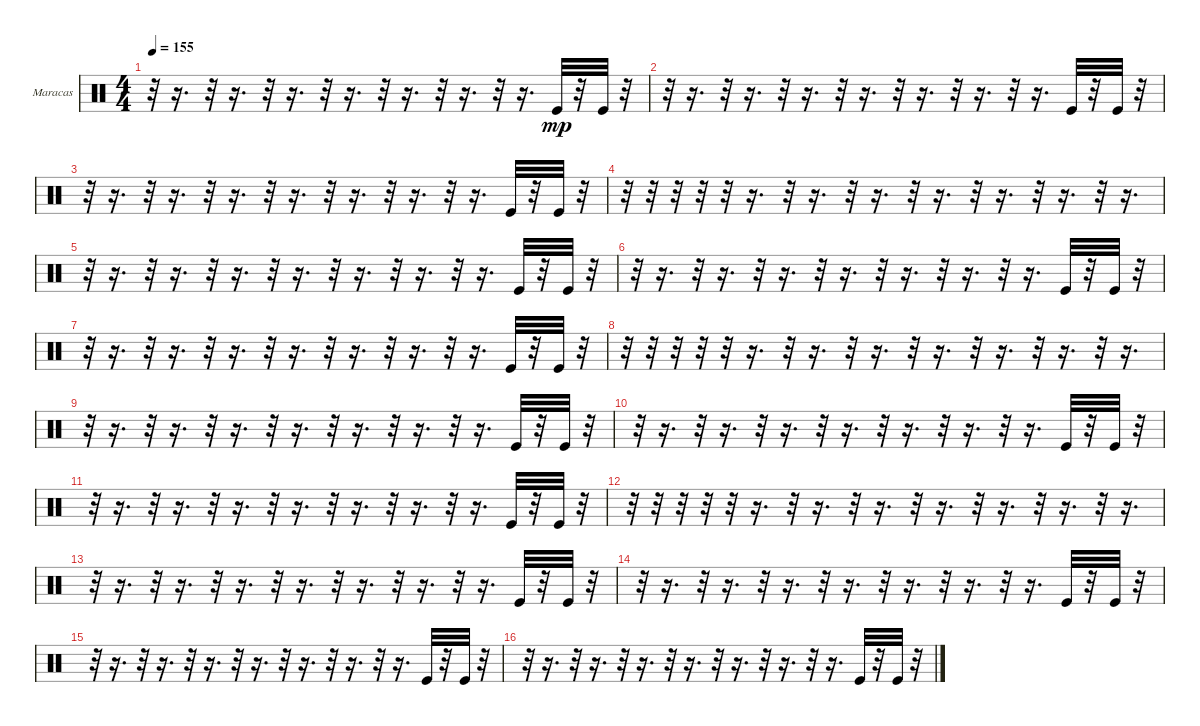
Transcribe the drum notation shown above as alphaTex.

\bracketExtendMode groupsimilarinstruments
\firstSystemTrackNameOrientation horizontal
\otherSystemsTrackNameOrientation horizontal
\track ("Е. Кулаков" "Maracas") {instrument percussion}
\staff {score}
\articulation defaults
\ts (4 4)
\tempo 155
\clef neutral
\ks c
r.32{dy mp} r.16{d} r.32 r.16{d} r.32 r.16{d} r.32 r.16{d} r.32 r.16{d} r.32 r.16{d} r.32 r.16{d} "Kick (hit)".32 r.32 "Kick (hit)".32 r.32 |
r.32 r.16{d} r.32 r.16{d} r.32 r.16{d} r.32 r.16{d} r.32 r.16{d} r.32 r.16{d} r.32 r.16{d} "Kick (hit)".32 r.32 "Kick (hit)".32 r.32 |
r.32 r.16{d} r.32 r.16{d} r.32 r.16{d} r.32 r.16{d} r.32 r.16{d} r.32 r.16{d} r.32 r.16{d} "Kick (hit)".32 r.32 "Kick (hit)".32 r.32 |
r.32 r.32 r.32 r.32 r.32 r.16{d} r.32 r.16{d} r.32 r.16{d} r.32 r.16{d} r.32 r.16{d} r.32 r.16{d} r.32 r.16{d} |
r.32 r.16{d} r.32 r.16{d} r.32 r.16{d} r.32 r.16{d} r.32 r.16{d} r.32 r.16{d} r.32 r.16{d} "Kick (hit)".32 r.32 "Kick (hit)".32 r.32 |
r.32 r.16{d} r.32 r.16{d} r.32 r.16{d} r.32 r.16{d} r.32 r.16{d} r.32 r.16{d} r.32 r.16{d} "Kick (hit)".32 r.32 "Kick (hit)".32 r.32 |
r.32 r.16{d} r.32 r.16{d} r.32 r.16{d} r.32 r.16{d} r.32 r.16{d} r.32 r.16{d} r.32 r.16{d} "Kick (hit)".32 r.32 "Kick (hit)".32 r.32 |
r.32 r.32 r.32 r.32 r.32 r.16{d} r.32 r.16{d} r.32 r.16{d} r.32 r.16{d} r.32 r.16{d} r.32 r.16{d} r.32 r.16{d} |
r.32 r.16{d} r.32 r.16{d} r.32 r.16{d} r.32 r.16{d} r.32 r.16{d} r.32 r.16{d} r.32 r.16{d} "Kick (hit)".32 r.32 "Kick (hit)".32 r.32 |
r.32 r.16{d} r.32 r.16{d} r.32 r.16{d} r.32 r.16{d} r.32 r.16{d} r.32 r.16{d} r.32 r.16{d} "Kick (hit)".32 r.32 "Kick (hit)".32 r.32 |
r.32 r.16{d} r.32 r.16{d} r.32 r.16{d} r.32 r.16{d} r.32 r.16{d} r.32 r.16{d} r.32 r.16{d} "Kick (hit)".32 r.32 "Kick (hit)".32 r.32 |
r.32 r.32 r.32 r.32 r.32 r.16{d} r.32 r.16{d} r.32 r.16{d} r.32 r.16{d} r.32 r.16{d} r.32 r.16{d} r.32 r.16{d} |
r.32 r.16{d} r.32 r.16{d} r.32 r.16{d} r.32 r.16{d} r.32 r.16{d} r.32 r.16{d} r.32 r.16{d} "Kick (hit)".32 r.32 "Kick (hit)".32 r.32 |
r.32 r.16{d} r.32 r.16{d} r.32 r.16{d} r.32 r.16{d} r.32 r.16{d} r.32 r.16{d} r.32 r.16{d} "Kick (hit)".32 r.32 "Kick (hit)".32 r.32 |
r.32 r.16{d} r.32 r.16{d} r.32 r.16{d} r.32 r.16{d} r.32 r.16{d} r.32 r.16{d} r.32 r.16{d} "Kick (hit)".32 r.32 "Kick (hit)".32 r.32 |
r.32 r.16{d} r.32 r.16{d} r.32 r.16{d} r.32 r.16{d} r.32 r.16{d} r.32 r.16{d} r.32 r.16{d} "Kick (hit)".32 r.32 "Kick (hit)".32 r.32
